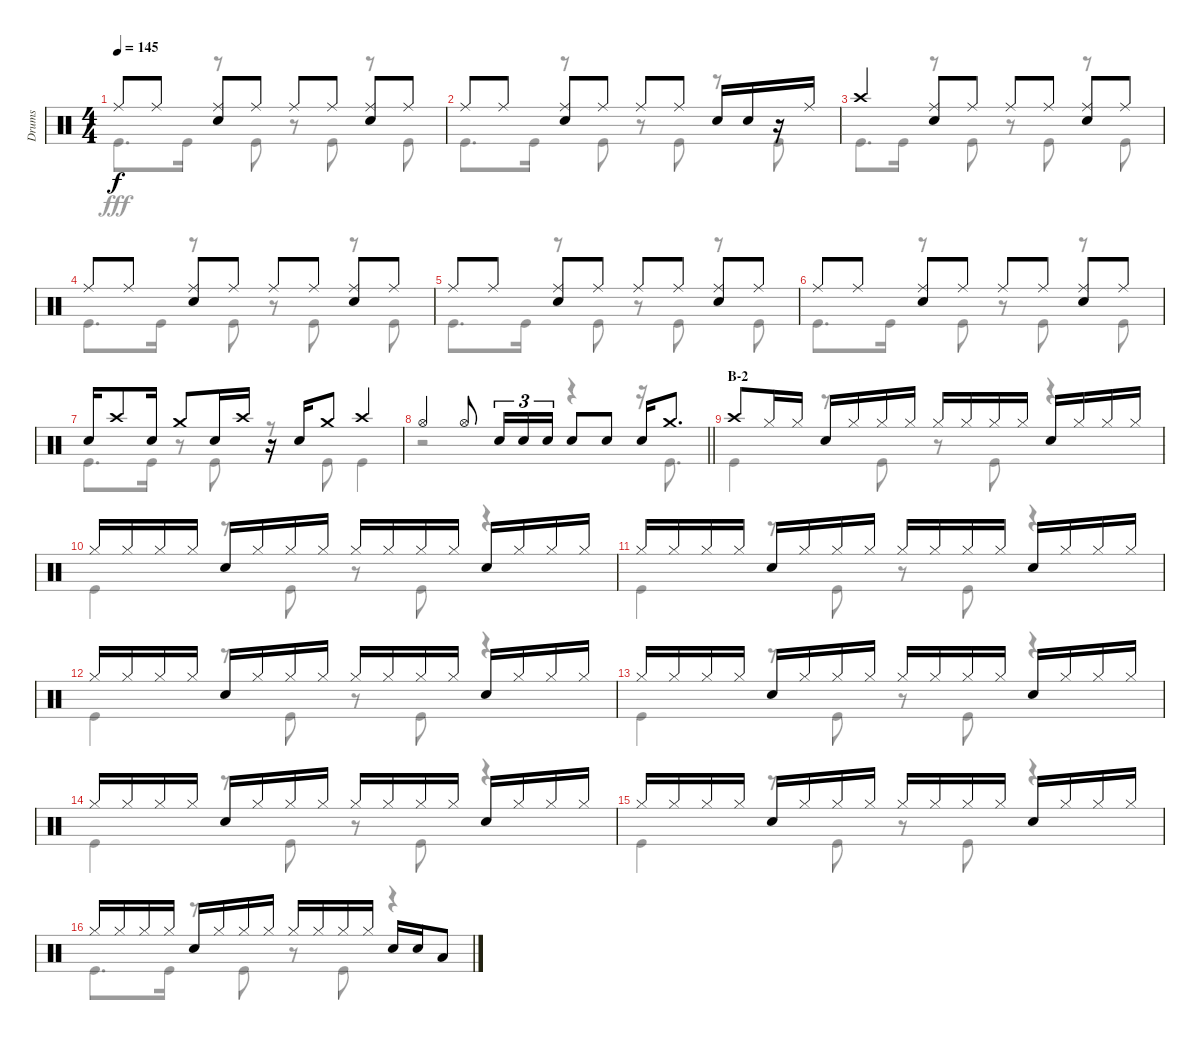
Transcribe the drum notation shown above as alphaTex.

\track ("Drums" "Drums") {instrument percussion}
\staff {score}
\articulation defaults
\voice
\ts (4 4)
\tempo 145
\clef neutral
\ks c "Ride (middle)".8{dy f} "Ride (middle)".8
("Ride (middle)" "Snare (hit) 2").8 "Ride (middle)".8 "Ride (middle)".8 "Ride (middle)".8 ("Ride (middle)" "Snare (hit) 2").8 "Ride (middle)".8 |
"Ride (middle)".8 "Ride (middle)".8 ("Ride (middle)" "Snare (hit) 2").8 "Ride (middle)".8 "Ride (middle)".8 "Ride (middle)".8 "Snare (hit) 2".16 "Snare (hit) 2".16 r.16 "Ride (middle)".16 |
"Crash high (hit)".4 ("Ride (middle)" "Snare (hit) 2").8 "Ride (middle)".8 "Ride (middle)".8 "Ride (middle)".8 ("Ride (middle)" "Snare (hit) 2").8 "Ride (middle)".8 |
"Ride (middle)".8 "Ride (middle)".8 ("Ride (middle)" "Snare (hit) 2").8 "Ride (middle)".8 "Ride (middle)".8 "Ride (middle)".8 ("Ride (middle)" "Snare (hit) 2").8 "Ride (middle)".8 |
"Ride (middle)".8 "Ride (middle)".8 ("Ride (middle)" "Snare (hit) 2").8 "Ride (middle)".8 "Ride (middle)".8 "Ride (middle)".8 ("Ride (middle)" "Snare (hit) 2").8 "Ride (middle)".8 |
"Ride (middle)".8 "Ride (middle)".8 ("Ride (middle)" "Snare (hit) 2").8 "Ride (middle)".8 "Ride (middle)".8 "Ride (middle)".8 ("Ride (middle)" "Snare (hit) 2").8 "Ride (middle)".8 |
"Snare (hit) 2".16 "Crash high (hit)".8 "Snare (hit) 2".16 "Crash medium (hit)".8 "Snare (hit) 2".16 "Crash high (hit)".16 r.16 "Snare (hit) 2".16 "Crash medium (hit)".8 "Crash high (hit)".4 |
\barLineRight lightlight "Hi-Hat (open)".4 "Hi-Hat (open)".8 "Snare (hit) 2".16{tu (3 2)} "Snare (hit) 2".16{tu (3 2)} "Snare (hit) 2".16{tu (3 2)} "Snare (hit) 2".8 "Snare (hit) 2".8 "Snare (hit) 2".16 "Crash medium (hit)".8{d}
|
\section ("" "B-2")
"Crash high (hit)".8 "Hi-Hat (closed)".16 "Hi-Hat (closed)".16 "Snare (hit) 2".16 "Hi-Hat (closed)".16 "Hi-Hat (closed)".16 "Hi-Hat (closed)".16 "Hi-Hat (closed)".16 "Hi-Hat (closed)".16 "Hi-Hat (closed)".16 "Hi-Hat (closed)".16 "Snare (hit) 2".16 "Hi-Hat (closed)".16 "Hi-Hat (closed)".16 "Hi-Hat (closed)".16 |
"Hi-Hat (closed)".16 "Hi-Hat (closed)".16 "Hi-Hat (closed)".16 "Hi-Hat (closed)".16 "Snare (hit) 2".16 "Hi-Hat (closed)".16 "Hi-Hat (closed)".16 "Hi-Hat (closed)".16 "Hi-Hat (closed)".16 "Hi-Hat (closed)".16 "Hi-Hat (closed)".16 "Hi-Hat (closed)".16 "Snare (hit) 2".16 "Hi-Hat (closed)".16 "Hi-Hat (closed)".16 "Hi-Hat (closed)".16 |
"Hi-Hat (closed)".16 "Hi-Hat (closed)".16 "Hi-Hat (closed)".16 "Hi-Hat (closed)".16 "Snare (hit) 2".16 "Hi-Hat (closed)".16 "Hi-Hat (closed)".16 "Hi-Hat (closed)".16 "Hi-Hat (closed)".16 "Hi-Hat (closed)".16 "Hi-Hat (closed)".16 "Hi-Hat (closed)".16 "Snare (hit) 2".16 "Hi-Hat (closed)".16 "Hi-Hat (closed)".16 "Hi-Hat (closed)".16 |
"Hi-Hat (closed)".16 "Hi-Hat (closed)".16 "Hi-Hat (closed)".16 "Hi-Hat (closed)".16 "Snare (hit) 2".16 "Hi-Hat (closed)".16 "Hi-Hat (closed)".16 "Hi-Hat (closed)".16 "Hi-Hat (closed)".16 "Hi-Hat (closed)".16 "Hi-Hat (closed)".16 "Hi-Hat (closed)".16 "Snare (hit) 2".16 "Hi-Hat (closed)".16 "Hi-Hat (closed)".16 "Hi-Hat (closed)".16 |
"Hi-Hat (closed)".16 "Hi-Hat (closed)".16 "Hi-Hat (closed)".16 "Hi-Hat (closed)".16 "Snare (hit) 2".16 "Hi-Hat (closed)".16 "Hi-Hat (closed)".16 "Hi-Hat (closed)".16 "Hi-Hat (closed)".16 "Hi-Hat (closed)".16 "Hi-Hat (closed)".16 "Hi-Hat (closed)".16 "Snare (hit) 2".16 "Hi-Hat (closed)".16 "Hi-Hat (closed)".16 "Hi-Hat (closed)".16 |
"Hi-Hat (closed)".16 "Hi-Hat (closed)".16 "Hi-Hat (closed)".16 "Hi-Hat (closed)".16 "Snare (hit) 2".16 "Hi-Hat (closed)".16 "Hi-Hat (closed)".16 "Hi-Hat (closed)".16 "Hi-Hat (closed)".16 "Hi-Hat (closed)".16 "Hi-Hat (closed)".16 "Hi-Hat (closed)".16 "Snare (hit) 2".16 "Hi-Hat (closed)".16 "Hi-Hat (closed)".16 "Hi-Hat (closed)".16 |
"Hi-Hat (closed)".16 "Hi-Hat (closed)".16 "Hi-Hat (closed)".16 "Hi-Hat (closed)".16 "Snare (hit) 2".16 "Hi-Hat (closed)".16 "Hi-Hat (closed)".16 "Hi-Hat (closed)".16 "Hi-Hat (closed)".16 "Hi-Hat (closed)".16 "Hi-Hat (closed)".16 "Hi-Hat (closed)".16 "Snare (hit) 2".16 "Hi-Hat (closed)".16 "Hi-Hat (closed)".16 "Hi-Hat (closed)".16 |
"Hi-Hat (closed)".16 "Hi-Hat (closed)".16 "Hi-Hat (closed)".16 "Hi-Hat (closed)".16 "Snare (hit) 2".16 "Hi-Hat (closed)".16 "Hi-Hat (closed)".16 "Hi-Hat (closed)".16 "Hi-Hat (closed)".16 "Hi-Hat (closed)".16 "Hi-Hat (closed)".16 "Hi-Hat (closed)".16 "Snare (hit) 2".16 "Snare (hit) 2".16 "Low Tom (hit)".8
\voice
\clef neutral
\ottava regular
\simile none
\ks c "Kick (hit)".8{d dy fff} "Kick (hit)".16
r.8 "Kick (hit)".8 r.8 "Kick (hit)".8 r.8 "Kick (hit)".8 |
"Kick (hit)".8{d} "Kick (hit)".16 r.8 "Kick (hit)".8 r.8 "Kick (hit)".8 r.8 "Kick (hit)".8 |
"Kick (hit)".8{d} "Kick (hit)".16 r.8 "Kick (hit)".8 r.8 "Kick (hit)".8 r.8 "Kick (hit)".8 |
"Kick (hit)".8{d} "Kick (hit)".16 r.8 "Kick (hit)".8 r.8 "Kick (hit)".8 r.8 "Kick (hit)".8 |
"Kick (hit)".8{d} "Kick (hit)".16 r.8 "Kick (hit)".8 r.8 "Kick (hit)".8 r.8 "Kick (hit)".8 |
"Kick (hit)".8{d} "Kick (hit)".16 r.8 "Kick (hit)".8 r.8 "Kick (hit)".8 r.8 "Kick (hit)".8 |
"Kick (hit)".8{d} "Kick (hit)".16 r.8 "Kick (hit)".8 r.8 "Kick (hit)".8 "Kick (hit)".4 |
\barLineRight lightlight
r.2 r.4 r.16 "Kick (hit)".8{d} |
"Kick (hit)".4 r.8 "Kick (hit)".8 r.8 "Kick (hit)".8 r.4 |
"Kick (hit)".4 r.8 "Kick (hit)".8 r.8 "Kick (hit)".8 r.4 |
"Kick (hit)".4 r.8 "Kick (hit)".8 r.8 "Kick (hit)".8 r.4 |
"Kick (hit)".4 r.8 "Kick (hit)".8 r.8 "Kick (hit)".8 r.4 |
"Kick (hit)".4 r.8 "Kick (hit)".8 r.8 "Kick (hit)".8 r.4 |
"Kick (hit)".4 r.8 "Kick (hit)".8 r.8 "Kick (hit)".8 r.4 |
"Kick (hit)".4 r.8 "Kick (hit)".8 r.8 "Kick (hit)".8 r.4 |
"Kick (hit)".8{d} "Kick (hit)".16 r.8 "Kick (hit)".8 r.8 "Kick (hit)".8 r.4
